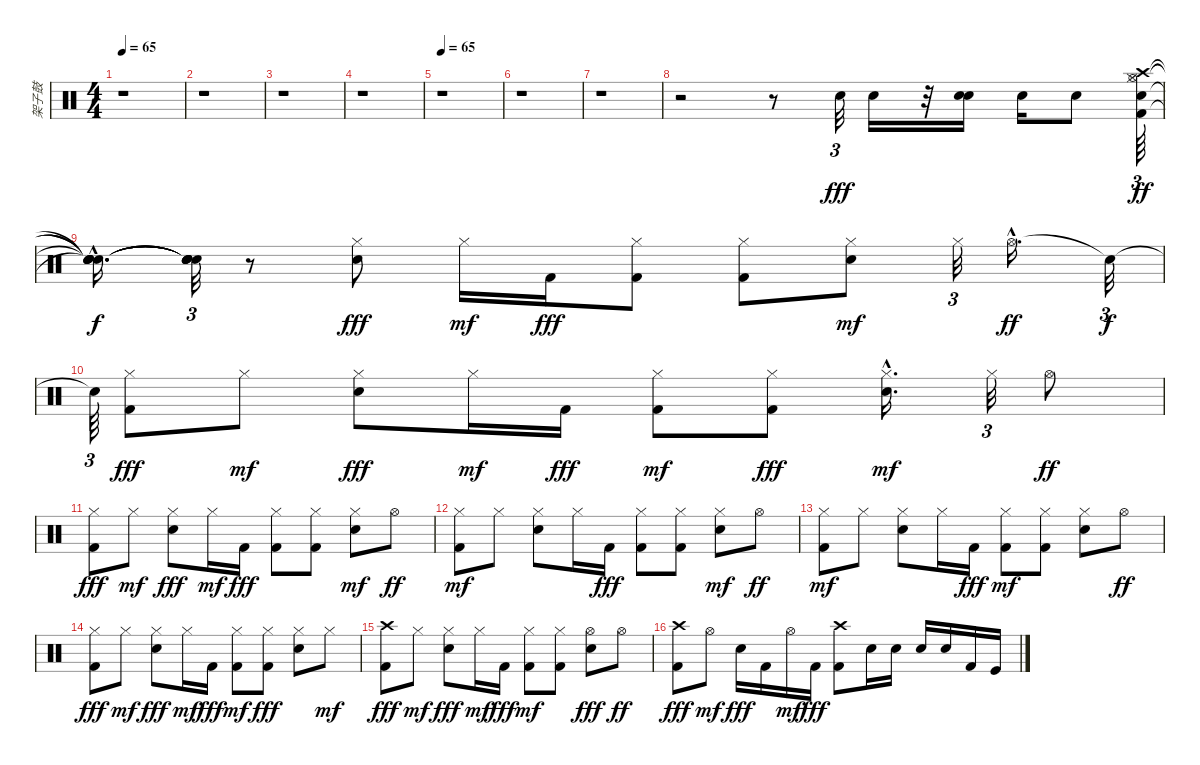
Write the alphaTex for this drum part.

\track ("架子鼓" "架子鼓") {instrument percussion}
\staff {score}
\articulation defaults
\ts (4 4)
\tempo 65
\clef neutral
\ks c
r.1{dy fff} |
r.1 |
r.1 |
r.1 |
\tempo 65
r.1 |
r.1 |
r.1 |
r.2 r.8 "Snare (hit) 2".32{tu (3 2)} "Electric Snare (hit)".16 r.32 ("Electric Snare (hit)" "Snare (hit) 2").16 "Electric Snare (hit)".16 "Electric Snare (hit)".8 ("Snare (hit) 2" "Hi-Hat (closed)" "Crash high (hit)" "Kick (hit) 2" "Hi-Hat (open)").64{tu (3 2) dy ff} |
("Snare (hit)"{hac t} "Snare (hit)"{hac t} "Snare (hit)"{hac t} "Snare (hit)"{hac t} "Snare (hit)"{hac t}).16{d dy f} ("Snare (hit)"{t} "Snare (hit)"{t} "Snare (hit)"{t} "Snare (hit)"{t} "Snare (hit)"{t}).32{tu (3 2)} r.8 ("Hi-Hat (closed)" "Snare (hit) 2").8{dy fff} "Hi-Hat (closed)".16{dy mf} "Kick (hit) 2".16{dy fff} ("Hi-Hat (closed)" "Kick (hit) 2").8 ("Hi-Hat (closed)" "Kick (hit) 2").8 ("Snare (hit) 2" "Hi-Hat (closed)").8{dy mf} "Hi-Hat (closed)".32{tu (3 2)} "Hi-Hat (open)"{hac}.16{d dy ff} "Snare (hit)"{t}.32{tu (3 2) dy f} |
"Snare (hit)"{t}.64{tu (3 2)} ("Hi-Hat (closed)" "Kick (hit) 2").8{dy fff} "Hi-Hat (closed)".8{dy mf} ("Hi-Hat (closed)" "Snare (hit) 2").8{dy fff} "Hi-Hat (closed)".16{dy mf} "Kick (hit) 2".16{dy fff} ("Kick (hit) 2" "Hi-Hat (closed)").8{dy mf} ("Hi-Hat (closed)" "Kick (hit) 2").8{dy fff} ("Snare (hit) 2" "Hi-Hat (closed)"{hac}).16{d dy mf} "Hi-Hat (closed)".32{tu (3 2)} "Hi-Hat (open)".8{dy ff} |
("Hi-Hat (closed)" "Kick (hit) 2").8{dy fff} "Hi-Hat (closed)".8{dy mf} ("Hi-Hat (closed)" "Snare (hit) 2").8{dy fff} "Hi-Hat (closed)".16{dy mf} "Kick (hit) 2".16{dy fff} ("Hi-Hat (closed)" "Kick (hit) 2").8 ("Hi-Hat (closed)" "Kick (hit) 2").8 ("Snare (hit) 2" "Hi-Hat (closed)").8{dy mf} "Hi-Hat (open)".8{dy ff} |
("Kick (hit) 2" "Hi-Hat (closed)").8{dy mf} "Hi-Hat (closed)".8 ("Snare (hit) 2" "Hi-Hat (closed)").8 "Hi-Hat (closed)".16 "Kick (hit) 2".16{dy fff} ("Hi-Hat (closed)" "Kick (hit) 2").8 ("Hi-Hat (closed)" "Kick (hit) 2").8 ("Snare (hit) 2" "Hi-Hat (closed)").8{dy mf} "Hi-Hat (open)".8{dy ff} |
("Kick (hit) 2" "Hi-Hat (closed)").8{dy mf} "Hi-Hat (closed)".8 ("Snare (hit) 2" "Hi-Hat (closed)").8 "Hi-Hat (closed)".16 "Kick (hit) 2".16{dy fff} ("Kick (hit) 2" "Hi-Hat (closed)").8{dy mf} ("Kick (hit) 2" "Hi-Hat (closed)").8 ("Snare (hit) 2" "Hi-Hat (closed)").8 "Hi-Hat (open)".8{dy ff} |
("Hi-Hat (closed)" "Kick (hit) 2").8{dy fff} "Hi-Hat (closed)".8{dy mf} ("Hi-Hat (closed)" "Snare (hit) 2").8{dy fff} "Hi-Hat (closed)".16{dy mf} "Kick (hit) 2".16{dy fff} ("Kick (hit) 2" "Hi-Hat (closed)").8{dy mf} ("Hi-Hat (closed)" "Kick (hit) 2").8{dy fff} ("Hi-Hat (closed)" "Snare (hit) 2").8 "Hi-Hat (closed)".8{dy mf} |
("Crash high (hit)" "Kick (hit) 2").8{dy fff} "Hi-Hat (closed)".8{dy mf} ("Hi-Hat (closed)" "Snare (hit) 2").8{dy fff} "Hi-Hat (closed)".16{dy mf} "Kick (hit) 2".16{dy fff} ("Kick (hit) 2" "Hi-Hat (closed)").8{dy mf} ("Kick (hit) 2" "Hi-Hat (closed)").8 ("Hi-Hat (open)" "Snare (hit) 2").8{dy fff} "Hi-Hat (open)".8{dy ff} |
("Crash high (hit)" "Kick (hit) 2").8{dy fff} "Hi-Hat (open)".8{dy mf} "Snare (hit) 2".16{dy fff} "Kick (hit) 2".16 "Hi-Hat (open)".16{dy mf} "Kick (hit) 2".16{dy fff} ("Crash high (hit)" "Kick (hit) 2").8 "Snare (hit) 2".16 "Electric Snare (hit)".16 "Snare (hit) 2".16 "Snare (hit) 2".16 "Kick (hit) 2".16 "Kick (hit)".16
